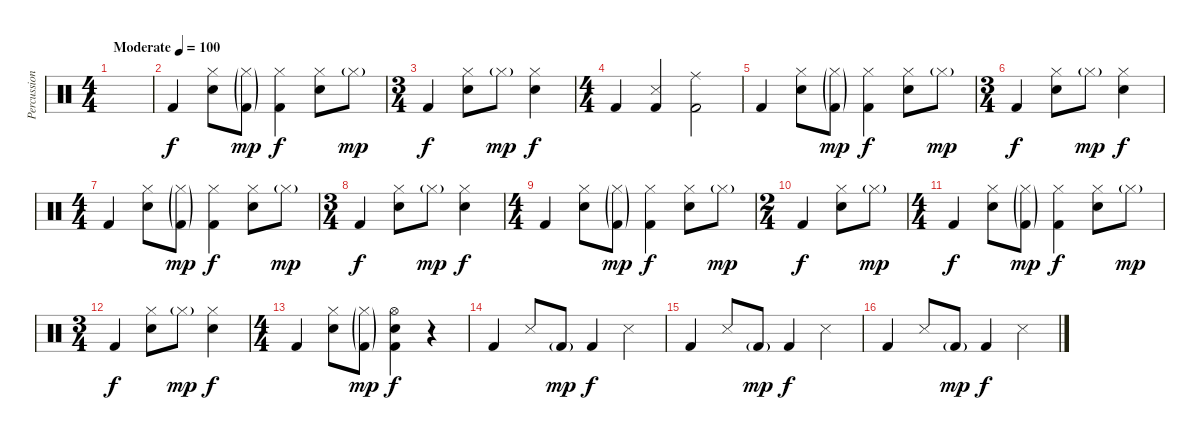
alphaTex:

\track ("Percussion" "Percussion") {instrument percussion}
\staff {score}
\articulation defaults
\ts (4 4)
\tempo (100 "Moderate")
\clef neutral
\ks c
|
"Kick (hit) 2".4 ("Hi-Hat (closed)" "Snare (hit) 2").8 ("Hi-Hat (closed)"{g} "Kick (hit) 2"{g}).8{dy mp} ("Hi-Hat (closed)" "Kick (hit) 2").4{dy f} ("Hi-Hat (closed)" "Snare (hit) 2").8 "Hi-Hat (closed)"{g}.8{dy mp} |
\ts (3 4)
"Kick (hit) 2".4{dy f} ("Hi-Hat (closed)" "Snare (hit) 2").8 "Hi-Hat (closed)"{g}.8{dy mp} ("Hi-Hat (closed)" "Snare (hit) 2").4{dy f} |
\ts (4 4)
"Kick (hit) 2".4 ("Snare (side stick) 3" "Kick (hit) 2").4 ("Ride (middle)" "Kick (hit) 2").2 |
"Kick (hit) 2".4 ("Hi-Hat (closed)" "Snare (hit) 2").8 ("Hi-Hat (closed)"{g} "Kick (hit) 2"{g}).8{dy mp} ("Hi-Hat (closed)" "Kick (hit) 2").4{dy f} ("Hi-Hat (closed)" "Snare (hit) 2").8 "Hi-Hat (closed)"{g}.8{dy mp} |
\ts (3 4)
"Kick (hit) 2".4{dy f} ("Hi-Hat (closed)" "Snare (hit) 2").8 "Hi-Hat (closed)"{g}.8{dy mp} ("Hi-Hat (closed)" "Snare (hit) 2").4{dy f} |
\ts (4 4)
"Kick (hit) 2".4 ("Hi-Hat (closed)" "Snare (hit) 2").8 ("Hi-Hat (closed)"{g} "Kick (hit) 2"{g}).8{dy mp} ("Hi-Hat (closed)" "Kick (hit) 2").4{dy f} ("Hi-Hat (closed)" "Snare (hit) 2").8 "Hi-Hat (closed)"{g}.8{dy mp} |
\ts (3 4)
"Kick (hit) 2".4{dy f} ("Hi-Hat (closed)" "Snare (hit) 2").8 "Hi-Hat (closed)"{g}.8{dy mp} ("Hi-Hat (closed)" "Snare (hit) 2").4{dy f} |
\ts (4 4)
"Kick (hit) 2".4 ("Hi-Hat (closed)" "Snare (hit) 2").8 ("Hi-Hat (closed)"{g} "Kick (hit) 2"{g}).8{dy mp} ("Hi-Hat (closed)" "Kick (hit) 2").4{dy f} ("Hi-Hat (closed)" "Snare (hit) 2").8 "Hi-Hat (closed)"{g}.8{dy mp} |
\ts (2 4)
"Kick (hit) 2".4{dy f} ("Hi-Hat (closed)" "Snare (hit) 2").8 "Hi-Hat (closed)"{g}.8{dy mp} |
\ts (4 4)
"Kick (hit) 2".4{dy f} ("Hi-Hat (closed)" "Snare (hit) 2").8 ("Hi-Hat (closed)"{g} "Kick (hit) 2"{g}).8{dy mp} ("Hi-Hat (closed)" "Kick (hit) 2").4{dy f} ("Hi-Hat (closed)" "Snare (hit) 2").8 "Hi-Hat (closed)"{g}.8{dy mp} |
\ts (3 4)
"Kick (hit) 2".4{dy f} ("Hi-Hat (closed)" "Snare (hit) 2").8 "Hi-Hat (closed)"{g}.8{dy mp} ("Hi-Hat (closed)" "Snare (hit) 2").4{dy f} |
\ts (4 4)
"Kick (hit) 2".4 ("Hi-Hat (closed)" "Snare (hit) 2").8 ("Hi-Hat (closed)"{g} "Kick (hit) 2"{g}).8{dy mp} ("Hi-Hat (open)" "Snare (hit) 2" "Kick (hit) 2").4{dy f} r.4 |
"Kick (hit) 2".4 "Snare (side stick) 3".8 "Kick (hit) 2"{g}.8{dy mp} "Kick (hit) 2".4{dy f} "Snare (side stick) 3".4 |
"Kick (hit) 2".4 "Snare (side stick) 3".8 "Kick (hit) 2"{g}.8{dy mp} "Kick (hit) 2".4{dy f} "Snare (side stick) 3".4 |
"Kick (hit) 2".4 "Snare (side stick) 3".8 "Kick (hit) 2"{g}.8{dy mp} "Kick (hit) 2".4{dy f} "Snare (side stick) 3".4
